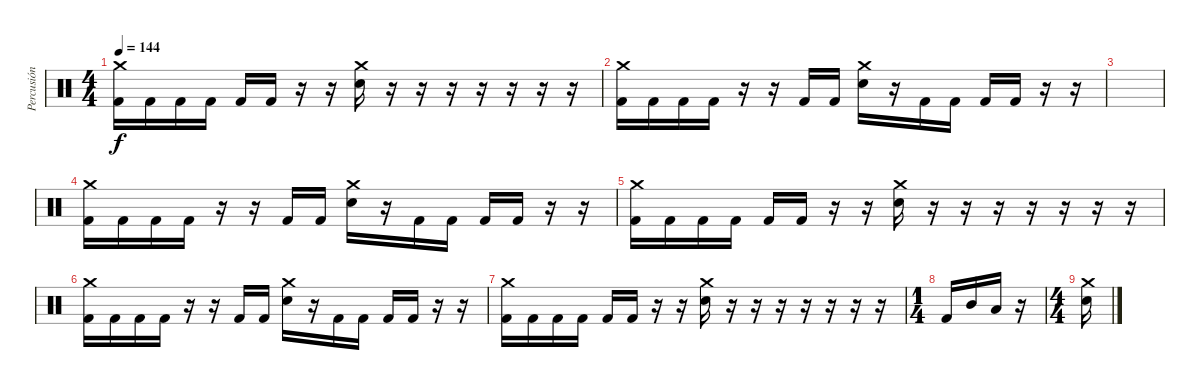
\track ("Percusión" "Percusión") {instrument percussion}
\staff {score}
\articulation defaults
\ts (4 4)
\tempo 144
\clef neutral
\ks c
("Crash medium (hit)" "Kick (hit) 2").16{dy f} "Kick (hit) 2".16 "Kick (hit) 2".16 "Kick (hit) 2".16 "Kick (hit) 2".16 "Kick (hit) 2".16 r.16 r.16 ("Crash medium (hit)" "Electric Snare (hit)").16 r.16 r.16 r.16 r.16 r.16 r.16 r.16 |
("Crash medium (hit)" "Kick (hit) 2").16 "Kick (hit) 2".16 "Kick (hit) 2".16 "Kick (hit) 2".16 r.16 r.16 "Kick (hit) 2".16 "Kick (hit) 2".16 ("Crash medium (hit)" "Electric Snare (hit)").16 r.16 "Kick (hit) 2".16 "Kick (hit) 2".16 "Kick (hit) 2".16 "Kick (hit) 2".16 r.16 r.16 |
|
("Crash medium (hit)" "Kick (hit) 2").16 "Kick (hit) 2".16 "Kick (hit) 2".16 "Kick (hit) 2".16 r.16 r.16 "Kick (hit) 2".16 "Kick (hit) 2".16 ("Crash medium (hit)" "Electric Snare (hit)").16 r.16 "Kick (hit) 2".16 "Kick (hit) 2".16 "Kick (hit) 2".16 "Kick (hit) 2".16 r.16 r.16 |
("Crash medium (hit)" "Kick (hit) 2").16 "Kick (hit) 2".16 "Kick (hit) 2".16 "Kick (hit) 2".16 "Kick (hit) 2".16 "Kick (hit) 2".16 r.16 r.16 ("Crash medium (hit)" "Electric Snare (hit)").16 r.16 r.16 r.16 r.16 r.16 r.16 r.16 |
("Crash medium (hit)" "Kick (hit) 2").16 "Kick (hit) 2".16 "Kick (hit) 2".16 "Kick (hit) 2".16 r.16 r.16 "Kick (hit) 2".16 "Kick (hit) 2".16 ("Crash medium (hit)" "Electric Snare (hit)").16 r.16 "Kick (hit) 2".16 "Kick (hit) 2".16 "Kick (hit) 2".16 "Kick (hit) 2".16 r.16 r.16 |
("Crash medium (hit)" "Kick (hit) 2").16 "Kick (hit) 2".16 "Kick (hit) 2".16 "Kick (hit) 2".16 "Kick (hit) 2".16 "Kick (hit) 2".16 r.16 r.16 ("Crash medium (hit)" "Electric Snare (hit)").16 r.16 r.16 r.16 r.16 r.16 r.16 r.16 |
\ts (1 4)
"Kick (hit) 2".16 "Mid Tom (hit)".16 "Low Tom (hit)".16 r.16 |
\ts (4 4)
("Crash medium (hit)" "Electric Snare (hit)").16
